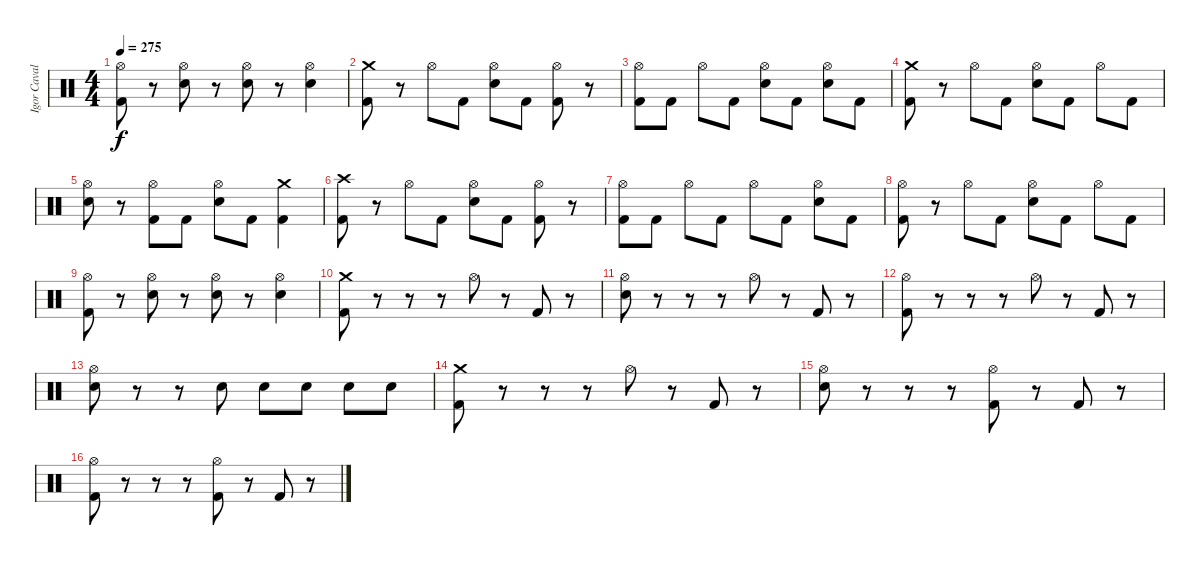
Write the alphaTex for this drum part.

\track ("Igor Cavalera" "Igor Caval") {instrument percussion}
\staff {score}
\articulation defaults
\ts (4 4)
\tempo 275
\clef neutral
\ks c
("Kick (hit) 2" "Hi-Hat (open)").8{dy f} r.8 ("Electric Snare (hit)" "Hi-Hat (open)").8 r.8 ("Electric Snare (hit)" "Hi-Hat (open)").8 r.8 ("Electric Snare (hit)" "Hi-Hat (open)").4 |
("Crash medium (hit)" "Kick (hit) 2").8 r.8 "Hi-Hat (open)".8 "Kick (hit) 2".8 ("Electric Snare (hit)" "Hi-Hat (open)").8 "Kick (hit) 2".8 ("Kick (hit) 2" "Hi-Hat (open)").8 r.8 |
("Kick (hit) 2" "Hi-Hat (open)").8 "Kick (hit) 2".8 "Hi-Hat (open)".8 "Kick (hit) 2".8 ("Electric Snare (hit)" "Hi-Hat (open)").8 "Kick (hit) 2".8 ("Electric Snare (hit)" "Hi-Hat (open)").8 "Kick (hit) 2".8 |
("Kick (hit) 2" "Crash medium (hit)").8 r.8 "Hi-Hat (open)".8 "Kick (hit) 2".8 ("Electric Snare (hit)" "Hi-Hat (open)").8 "Kick (hit) 2".8 "Hi-Hat (open)".8 "Kick (hit) 2".8 |
("Electric Snare (hit)" "Hi-Hat (open)").8 r.8 ("Kick (hit) 2" "Hi-Hat (open)").8 "Kick (hit) 2".8 ("Electric Snare (hit)" "Hi-Hat (open)").8 "Kick (hit) 2".8 ("Kick (hit) 2" "Crash medium (hit)").4 |
("Crash high (hit)" "Kick (hit) 2").8 r.8 "Hi-Hat (open)".8 "Kick (hit) 2".8 ("Electric Snare (hit)" "Hi-Hat (open)").8 "Kick (hit) 2".8 ("Kick (hit) 2" "Hi-Hat (open)").8 r.8 |
("Kick (hit) 2" "Hi-Hat (open)").8 "Kick (hit) 2".8 "Hi-Hat (open)".8 "Kick (hit) 2".8 "Hi-Hat (open)".8 "Kick (hit) 2".8 ("Electric Snare (hit)" "Hi-Hat (open)").8 "Kick (hit) 2".8 |
("Kick (hit) 2" "Hi-Hat (open)").8 r.8 "Hi-Hat (open)".8 "Kick (hit) 2".8 ("Electric Snare (hit)" "Hi-Hat (open)").8 "Kick (hit) 2".8 "Hi-Hat (open)".8 "Kick (hit) 2".8 |
("Kick (hit) 2" "Hi-Hat (open)").8 r.8 ("Electric Snare (hit)" "Hi-Hat (open)").8 r.8 ("Electric Snare (hit)" "Hi-Hat (open)").8 r.8 ("Electric Snare (hit)" "Hi-Hat (open)").4 |
("Kick (hit) 2" "Crash medium (hit)").8 r.8 r.8 r.8 "Hi-Hat (open)".8 r.8 "Kick (hit) 2".8 r.8 |
("Electric Snare (hit)" "Hi-Hat (open)").8 r.8 r.8 r.8 "Hi-Hat (open)".8 r.8 "Kick (hit) 2".8 r.8 |
("Kick (hit) 2" "Hi-Hat (open)").8 r.8 r.8 r.8 "Hi-Hat (open)".8 r.8 "Kick (hit) 2".8 r.8 |
("Electric Snare (hit)" "Hi-Hat (open)").8 r.8 r.8 "Electric Snare (hit)".8 "Electric Snare (hit)".8 "Electric Snare (hit)".8 "Electric Snare (hit)".8 "Electric Snare (hit)".8 |
("Kick (hit) 2" "Crash medium (hit)").8 r.8 r.8 r.8 "Hi-Hat (open)".8 r.8 "Kick (hit) 2".8 r.8 |
("Electric Snare (hit)" "Hi-Hat (open)").8 r.8 r.8 r.8 ("Kick (hit) 2" "Hi-Hat (open)").8 r.8 "Kick (hit) 2".8 r.8 |
("Kick (hit) 2" "Hi-Hat (open)").8 r.8 r.8 r.8 ("Kick (hit) 2" "Hi-Hat (open)").8 r.8 "Kick (hit) 2".8 r.8
